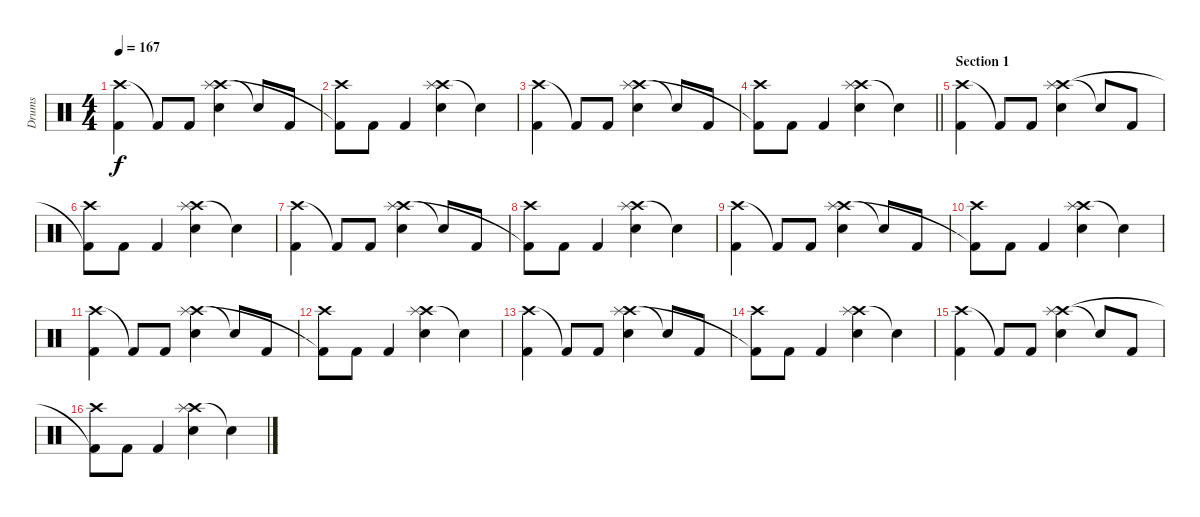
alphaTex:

\track ("Drums" "Drums") {instrument percussion}
\staff {score}
\articulation defaults
\ts (4 4)
\tempo 167
\clef neutral
\ks c
("Crash high (hit)" "Kick (hit) 2").4{dy f} "Kick (hit) 2"{t}.8 "Kick (hit) 2".8 ("Crash high (hit)" "Splash (hit)" "Snare (hit) 2").4 "Snare (hit)"{t}.8 "Kick (hit) 2".8 |
("Crash high (hit)" "Kick (hit) 2"{t}).8 "Kick (hit) 2".8 "Kick (hit) 2".4 ("Crash high (hit)" "Splash (hit)" "Snare (hit) 2").4 "Snare (hit)"{t}.4 |
("Crash high (hit)" "Kick (hit) 2").4 "Kick (hit) 2"{t}.8 "Kick (hit) 2".8 ("Crash high (hit)" "Splash (hit)" "Snare (hit) 2").4 "Snare (hit)"{t}.8 "Kick (hit) 2".8 |
\barLineRight lightlight
("Crash high (hit)" "Kick (hit) 2"{t}).8 "Kick (hit) 2".8 "Kick (hit) 2".4 ("Crash high (hit)" "Splash (hit)" "Snare (hit) 2").4 "Snare (hit)"{t}.4 |
\section ("" "Section 1")
("Crash high (hit)" "Kick (hit) 2").4 "Kick (hit) 2"{t}.8 "Kick (hit) 2".8 ("Crash high (hit)" "Splash (hit)" "Snare (hit) 2").4 "Snare (hit)"{t}.8 "Kick (hit) 2".8 |
("Crash high (hit)" "Kick (hit) 2"{t}).8 "Kick (hit) 2".8 "Kick (hit) 2".4 ("Crash high (hit)" "Splash (hit)" "Snare (hit) 2").4 "Snare (hit)"{t}.4 |
("Crash high (hit)" "Kick (hit) 2").4 "Kick (hit) 2"{t}.8 "Kick (hit) 2".8 ("Crash high (hit)" "Splash (hit)" "Snare (hit) 2").4 "Snare (hit)"{t}.8 "Kick (hit) 2".8 |
("Crash high (hit)" "Kick (hit) 2"{t}).8 "Kick (hit) 2".8 "Kick (hit) 2".4 ("Crash high (hit)" "Splash (hit)" "Snare (hit) 2").4 "Snare (hit)"{t}.4 |
("Crash high (hit)" "Kick (hit) 2").4 "Kick (hit) 2"{t}.8 "Kick (hit) 2".8 ("Crash high (hit)" "Splash (hit)" "Snare (hit) 2").4 "Snare (hit)"{t}.8 "Kick (hit) 2".8 |
("Crash high (hit)" "Kick (hit) 2"{t}).8 "Kick (hit) 2".8 "Kick (hit) 2".4 ("Crash high (hit)" "Splash (hit)" "Snare (hit) 2").4 "Snare (hit)"{t}.4 |
("Crash high (hit)" "Kick (hit) 2").4 "Kick (hit) 2"{t}.8 "Kick (hit) 2".8 ("Crash high (hit)" "Splash (hit)" "Snare (hit) 2").4 "Snare (hit)"{t}.8 "Kick (hit) 2".8 |
("Crash high (hit)" "Kick (hit) 2"{t}).8 "Kick (hit) 2".8 "Kick (hit) 2".4 ("Crash high (hit)" "Splash (hit)" "Snare (hit) 2").4 "Snare (hit)"{t}.4 |
("Crash high (hit)" "Kick (hit) 2").4 "Kick (hit) 2"{t}.8 "Kick (hit) 2".8 ("Crash high (hit)" "Splash (hit)" "Snare (hit) 2").4 "Snare (hit)"{t}.8 "Kick (hit) 2".8 |
("Crash high (hit)" "Kick (hit) 2"{t}).8 "Kick (hit) 2".8 "Kick (hit) 2".4 ("Crash high (hit)" "Splash (hit)" "Snare (hit) 2").4 "Snare (hit)"{t}.4 |
("Crash high (hit)" "Kick (hit) 2").4 "Kick (hit) 2"{t}.8 "Kick (hit) 2".8 ("Crash high (hit)" "Splash (hit)" "Snare (hit) 2").4 "Snare (hit)"{t}.8 "Kick (hit) 2".8 |
("Crash high (hit)" "Kick (hit) 2"{t}).8 "Kick (hit) 2".8 "Kick (hit) 2".4 ("Crash high (hit)" "Splash (hit)" "Snare (hit) 2").4 "Snare (hit)"{t}.4
